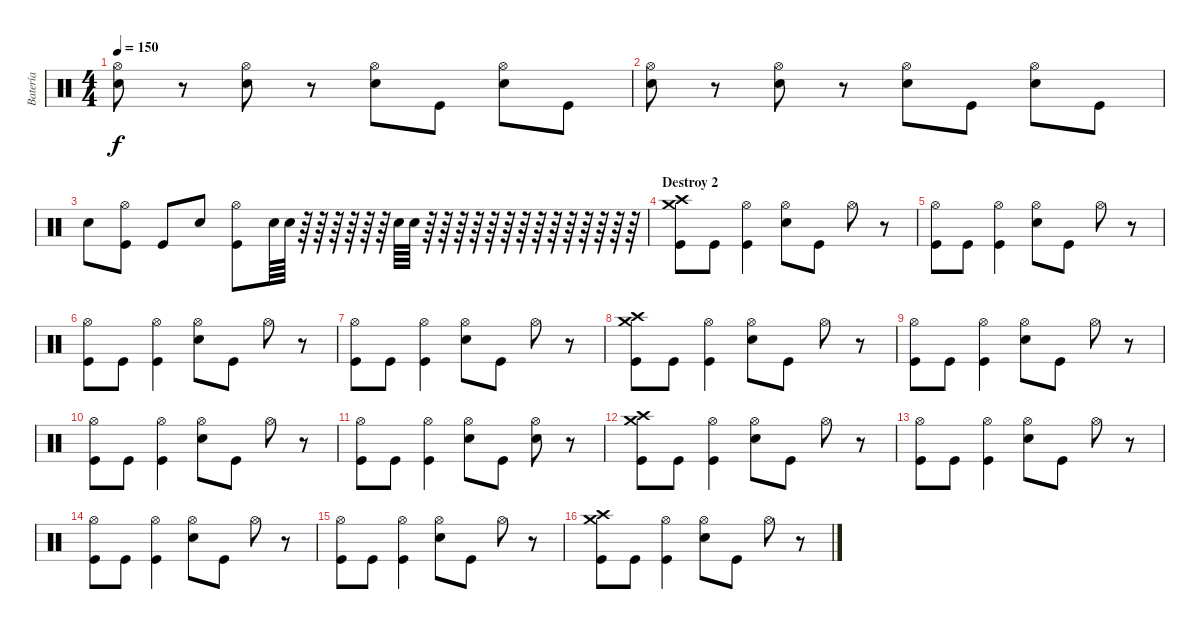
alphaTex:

\track ("Batería" "Batería") {instrument percussion}
\staff {score}
\articulation defaults
\ts (4 4)
\tempo 150
\clef neutral
\ks c
("Hi-Hat (open)" "Snare (hit) 2").8{dy f} r.8 ("Hi-Hat (open)" "Snare (hit) 2").8 r.8 ("Hi-Hat (open)" "Snare (hit) 2").8 "Kick (hit)".8 ("Hi-Hat (open)" "Snare (hit) 2").8 "Kick (hit)".8 |
("Hi-Hat (open)" "Snare (hit) 2").8 r.8 ("Hi-Hat (open)" "Snare (hit) 2").8 r.8 ("Hi-Hat (open)" "Snare (hit) 2").8 "Kick (hit)".8 ("Hi-Hat (open)" "Snare (hit) 2").8 "Kick (hit)".8 |
"Snare (hit) 2".8 ("Hi-Hat (open)" "Kick (hit)").8 "Kick (hit)".8 "Snare (hit) 2".8 ("Hi-Hat (open)" "Kick (hit)").8 "Snare (hit) 2".64 "Snare (hit) 2".64 r.64 r.64 r.64 r.64 r.64 r.64 "Snare (hit) 2".64 "Snare (hit) 2".64 r.64 r.64 r.64 r.64 r.64 r.64 r.64 r.64 r.64 r.64 r.64 r.64 r.64 r.64 |
\section ("" "Destroy 2")
("Crash high (hit)" "Crash medium (hit)" "Kick (hit)").8 "Kick (hit)".8 ("Hi-Hat (open)" "Kick (hit)").4 ("Hi-Hat (open)" "Snare (hit) 2").8 "Kick (hit)".8 "Hi-Hat (open)".8 r.8 |
("Hi-Hat (open)" "Kick (hit)").8 "Kick (hit)".8 ("Hi-Hat (open)" "Kick (hit)").4 ("Hi-Hat (open)" "Snare (hit) 2").8 "Kick (hit)".8 "Hi-Hat (open)".8 r.8 |
("Hi-Hat (open)" "Kick (hit)").8 "Kick (hit)".8 ("Hi-Hat (open)" "Kick (hit)").4 ("Hi-Hat (open)" "Snare (hit) 2").8 "Kick (hit)".8 "Hi-Hat (open)".8 r.8 |
("Hi-Hat (open)" "Kick (hit)").8 "Kick (hit)".8 ("Hi-Hat (open)" "Kick (hit)").4 ("Hi-Hat (open)" "Snare (hit) 2").8 "Kick (hit)".8 "Hi-Hat (open)".8 r.8 |
("Crash high (hit)" "Crash medium (hit)" "Kick (hit)").8 "Kick (hit)".8 ("Hi-Hat (open)" "Kick (hit)").4 ("Hi-Hat (open)" "Snare (hit) 2").8 "Kick (hit)".8 "Hi-Hat (open)".8 r.8 |
("Hi-Hat (open)" "Kick (hit)").8 "Kick (hit)".8 ("Hi-Hat (open)" "Kick (hit)").4 ("Hi-Hat (open)" "Snare (hit) 2").8 "Kick (hit)".8 "Hi-Hat (open)".8 r.8 |
("Hi-Hat (open)" "Kick (hit)").8 "Kick (hit)".8 ("Hi-Hat (open)" "Kick (hit)").4 ("Hi-Hat (open)" "Snare (hit) 2").8 "Kick (hit)".8 "Hi-Hat (open)".8 r.8 |
("Hi-Hat (open)" "Kick (hit)").8 "Kick (hit)".8 ("Hi-Hat (open)" "Kick (hit)").4 ("Hi-Hat (open)" "Snare (hit) 2").8 "Kick (hit)".8 ("Hi-Hat (open)" "Snare (hit) 2").8 r.8 |
("Crash high (hit)" "Crash medium (hit)" "Kick (hit)").8 "Kick (hit)".8 ("Hi-Hat (open)" "Kick (hit)").4 ("Hi-Hat (open)" "Snare (hit) 2").8 "Kick (hit)".8 "Hi-Hat (open)".8 r.8 |
("Hi-Hat (open)" "Kick (hit)").8 "Kick (hit)".8 ("Hi-Hat (open)" "Kick (hit)").4 ("Hi-Hat (open)" "Snare (hit) 2").8 "Kick (hit)".8 "Hi-Hat (open)".8 r.8 |
("Hi-Hat (open)" "Kick (hit)").8 "Kick (hit)".8 ("Hi-Hat (open)" "Kick (hit)").4 ("Hi-Hat (open)" "Snare (hit) 2").8 "Kick (hit)".8 "Hi-Hat (open)".8 r.8 |
("Hi-Hat (open)" "Kick (hit)").8 "Kick (hit)".8 ("Hi-Hat (open)" "Kick (hit)").4 ("Hi-Hat (open)" "Snare (hit) 2").8 "Kick (hit)".8 "Hi-Hat (open)".8 r.8 |
("Crash high (hit)" "Crash medium (hit)" "Kick (hit)").8 "Kick (hit)".8 ("Hi-Hat (open)" "Kick (hit)").4 ("Hi-Hat (open)" "Snare (hit) 2").8 "Kick (hit)".8 "Hi-Hat (open)".8 r.8
